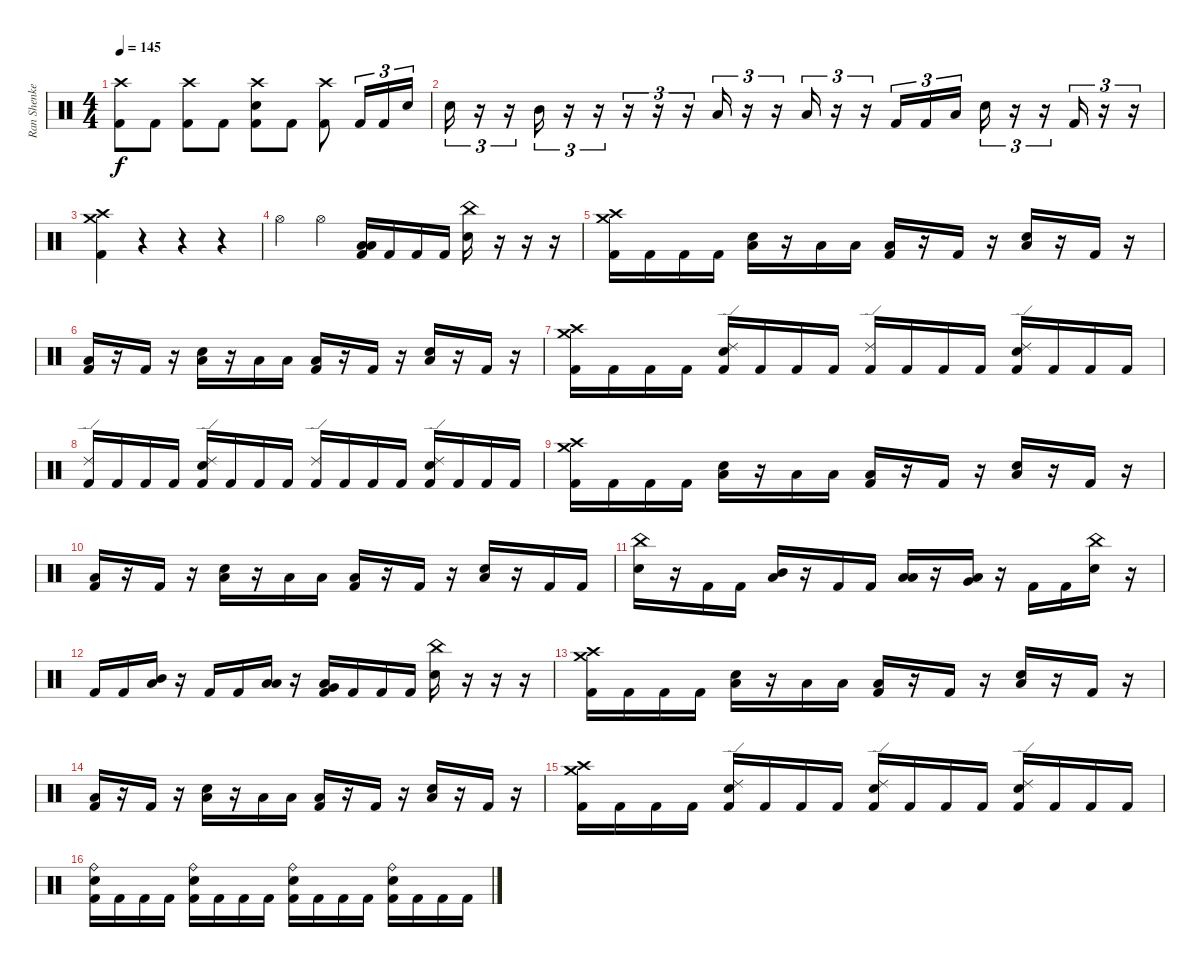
\track ("Ran Shenkerman" "Ran Shenke") {instrument percussion}
\staff {score}
\articulation defaults
\ts (4 4)
\tempo 145
\clef neutral
\ks c
("Crash high (hit)" "Kick (hit) 2").8{dy f} "Kick (hit) 2".8 ("Crash high (hit)" "Kick (hit) 2").8 "Kick (hit) 2".8 ("Crash high (hit)" "Snare (hit) 2" "Kick (hit) 2").8 "Kick (hit) 2".8 ("Crash high (hit)" "Kick (hit) 2").8 "Kick (hit) 2".16{tu (3 2)} "Kick (hit) 2".16{tu (3 2)} "Snare (hit) 2".16{tu (3 2)} |
"Snare (hit) 2".16{tu (3 2)} r.16{tu (3 2)} r.16{tu (3 2)} "Mid Tom (hit)".16{tu (3 2)} r.16{tu (3 2)} r.16{tu (3 2)} r.16{tu (3 2)} r.16{tu (3 2)} r.16{tu (3 2)} "Low Tom (hit)".16{tu (3 2)} r.16{tu (3 2)} r.16{tu (3 2)} "Low Tom (hit)".16{tu (3 2)} r.16{tu (3 2)} r.16{tu (3 2)} "Kick (hit) 2".16{tu (3 2)} "Kick (hit) 2".16{tu (3 2)} "Low Floor Tom (hit)".16{tu (3 2)} "Snare (hit) 2".16{tu (3 2)} r.16{tu (3 2)} r.16{tu (3 2)} "Kick (hit) 2".16{tu (3 2)} r.16{tu (3 2)} r.16{tu (3 2)} |
("Crash high (hit)" "Crash medium (hit)" "Kick (hit) 2").4 r.4 r.4 r.4 |
"Hi-Hat (open)".4 "Hi-Hat (open)".4 ("Low Tom (hit)" "Low Floor Tom (hit)" "Kick (hit) 2").16 "Kick (hit) 2".16 "Kick (hit) 2".16 "Kick (hit) 2".16 ("China (hit)" "Snare (hit) 2").16 r.16 r.16 r.16 |
("Crash high (hit)" "Crash medium (hit)" "Kick (hit) 2").16 "Kick (hit) 2".16 "Kick (hit) 2".16 "Kick (hit) 2".16 ("Snare (hit) 2" "Low Floor Tom (hit)").16 r.16 "Low Floor Tom (hit)".16 "Low Tom (hit)".16 ("Low Floor Tom (hit)" "Kick (hit) 2").16 r.16 "Kick (hit) 2".16 r.16 ("Snare (hit) 2" "Low Floor Tom (hit)").16 r.16 "Kick (hit) 2".16 r.16 |
("Low Floor Tom (hit)" "Kick (hit) 2").16 r.16 "Kick (hit) 2".16 r.16 ("Snare (hit) 2" "Low Floor Tom (hit)").16 r.16 "Low Floor Tom (hit)".16 "Low Tom (hit)".16 ("Low Floor Tom (hit)" "Kick (hit) 2").16 r.16 "Kick (hit) 2".16 r.16 ("Snare (hit) 2" "Low Floor Tom (hit)").16 r.16 "Kick (hit) 2".16 r.16 |
("Crash medium (hit)" "Crash high (hit)" "Kick (hit) 2").16 "Kick (hit) 2".16 "Kick (hit) 2".16 "Kick (hit) 2".16 ("Ride (edge) 2" "Snare (hit) 2" "Kick (hit) 2").16 "Kick (hit) 2".16 "Kick (hit) 2".16 "Kick (hit) 2".16 ("Ride (edge) 2" "Kick (hit) 2").16 "Kick (hit) 2".16 "Kick (hit) 2".16 "Kick (hit) 2".16 ("Ride (edge) 2" "Snare (hit) 2" "Kick (hit) 2").16 "Kick (hit) 2".16 "Kick (hit) 2".16 "Kick (hit) 2".16 |
("Ride (edge) 2" "Kick (hit) 2").16 "Kick (hit) 2".16 "Kick (hit) 2".16 "Kick (hit) 2".16 ("Ride (edge) 2" "Snare (hit) 2" "Kick (hit) 2").16 "Kick (hit) 2".16 "Kick (hit) 2".16 "Kick (hit) 2".16 ("Ride (edge) 2" "Kick (hit) 2").16 "Kick (hit) 2".16 "Kick (hit) 2".16 "Kick (hit) 2".16 ("Ride (edge) 2" "Snare (hit) 2" "Kick (hit) 2").16 "Kick (hit) 2".16 "Kick (hit) 2".16 "Kick (hit) 2".16 |
("Crash high (hit)" "Crash medium (hit)" "Kick (hit) 2").16 "Kick (hit) 2".16 "Kick (hit) 2".16 "Kick (hit) 2".16 ("Snare (hit) 2" "Low Floor Tom (hit)").16 r.16 "Low Floor Tom (hit)".16 "Low Tom (hit)".16 ("Low Floor Tom (hit)" "Kick (hit) 2").16 r.16 "Kick (hit) 2".16 r.16 ("Snare (hit) 2" "Low Floor Tom (hit)").16 r.16 "Kick (hit) 2".16 r.16 |
("Low Floor Tom (hit)" "Kick (hit) 2").16 r.16 "Kick (hit) 2".16 r.16 ("Snare (hit) 2" "Low Floor Tom (hit)").16 r.16 "Low Floor Tom (hit)".16 "Low Tom (hit)".16 ("Low Floor Tom (hit)" "Kick (hit) 2").16 r.16 "Kick (hit) 2".16 r.16 ("Snare (hit) 2" "Low Floor Tom (hit)").16 r.16 "Kick (hit) 2".16 "Kick (hit) 2".16 |
("China (hit)" "Snare (hit) 2").16 r.16 "Kick (hit) 2".16 "Kick (hit) 2".16 ("Mid Tom (hit)" "Low Floor Tom (hit)").16 r.16 "Kick (hit) 2".16 "Kick (hit) 2".16 ("Low Tom (hit)" "Low Floor Tom (hit)").16 r.16 ("Very Low Tom (hit)" "Low Floor Tom (hit)").16 r.16 "Kick (hit) 2".16 "Kick (hit) 2".16 ("China (hit)" "Snare (hit) 2").16 r.16 |
"Kick (hit) 2".16 "Kick (hit) 2".16 ("Mid Tom (hit)" "Low Floor Tom (hit)").16 r.16 "Kick (hit) 2".16 "Kick (hit) 2".16 ("Low Tom (hit)" "Low Floor Tom (hit)").16 r.16 ("Very Low Tom (hit)" "Low Floor Tom (hit)" "Kick (hit) 2").16 "Kick (hit) 2".16 "Kick (hit) 2".16 "Kick (hit) 2".16 ("China (hit)" "Snare (hit) 2").16 r.16 r.16 r.16 |
("Crash high (hit)" "Crash medium (hit)" "Kick (hit) 2").16 "Kick (hit) 2".16 "Kick (hit) 2".16 "Kick (hit) 2".16 ("Snare (hit) 2" "Low Floor Tom (hit)").16 r.16 "Low Floor Tom (hit)".16 "Low Tom (hit)".16 ("Low Floor Tom (hit)" "Kick (hit) 2").16 r.16 "Kick (hit) 2".16 r.16 ("Snare (hit) 2" "Low Floor Tom (hit)").16 r.16 "Kick (hit) 2".16 r.16 |
("Low Floor Tom (hit)" "Kick (hit) 2").16 r.16 "Kick (hit) 2".16 r.16 ("Snare (hit) 2" "Low Floor Tom (hit)").16 r.16 "Low Floor Tom (hit)".16 "Low Tom (hit)".16 ("Low Floor Tom (hit)" "Kick (hit) 2").16 r.16 "Kick (hit) 2".16 r.16 ("Snare (hit) 2" "Low Floor Tom (hit)").16 r.16 "Kick (hit) 2".16 r.16 |
("Crash medium (hit)" "Crash high (hit)" "Kick (hit) 2").16 "Kick (hit) 2".16 "Kick (hit) 2".16 "Kick (hit) 2".16 ("Ride (edge) 2" "Snare (hit) 2" "Kick (hit) 2").16 "Kick (hit) 2".16 "Kick (hit) 2".16 "Kick (hit) 2".16 ("Ride (edge) 2" "Snare (hit) 2" "Kick (hit) 2").16 "Kick (hit) 2".16 "Kick (hit) 2".16 "Kick (hit) 2".16 ("Ride (edge) 2" "Snare (hit) 2" "Kick (hit) 2").16 "Kick (hit) 2".16 "Kick (hit) 2".16 "Kick (hit) 2".16 |
("Ride (bell)" "Snare (hit) 2" "Kick (hit) 2").16 "Kick (hit) 2".16 "Kick (hit) 2".16 "Kick (hit) 2".16 ("Ride (bell)" "Snare (hit) 2" "Kick (hit) 2").16 "Kick (hit) 2".16 "Kick (hit) 2".16 "Kick (hit) 2".16 ("Ride (bell)" "Snare (hit) 2" "Kick (hit) 2").16 "Kick (hit) 2".16 "Kick (hit) 2".16 "Kick (hit) 2".16 ("Ride (bell)" "Snare (hit) 2" "Kick (hit) 2").16 "Kick (hit) 2".16 "Kick (hit) 2".16 "Kick (hit) 2".16
